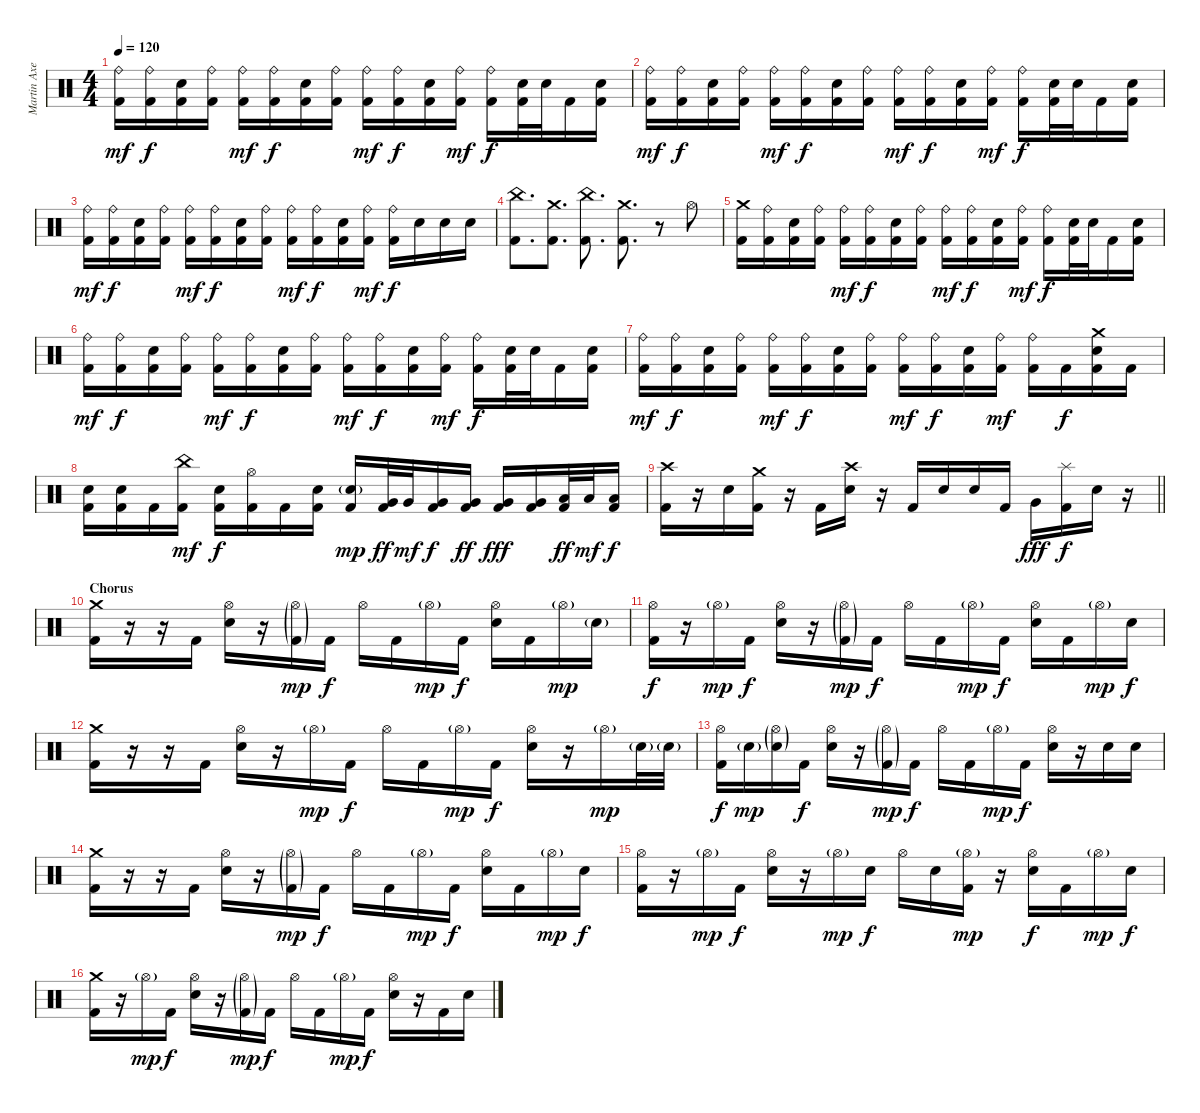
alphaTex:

\track ("Martin Axenrot - Drums" "Martin Axe") {instrument percussion}
\staff {score}
\articulation defaults
\ts (4 4)
\tempo 120
\clef neutral
\ks c
("Ride (bell)" "Kick (hit) 2").16{dy mf} ("Ride (bell)" "Kick (hit) 2").16{dy f} ("Snare (hit) 2" "Kick (hit) 2").16 ("Ride (bell)" "Kick (hit) 2").16 ("Ride (bell)" "Kick (hit) 2").16{dy mf} ("Ride (bell)" "Kick (hit) 2").16{dy f} ("Snare (hit) 2" "Kick (hit) 2").16 ("Ride (bell)" "Kick (hit) 2").16 ("Ride (bell)" "Kick (hit) 2").16{dy mf} ("Ride (bell)" "Kick (hit) 2").16{dy f} ("Snare (hit) 2" "Kick (hit) 2").16 ("Ride (bell)" "Kick (hit) 2").16{dy mf} ("Ride (bell)" "Kick (hit) 2").16{dy f} ("Snare (hit) 2" "Kick (hit) 2").32 "Snare (hit) 2".32 "Kick (hit) 2".16 ("Snare (hit) 2" "Kick (hit) 2").16 |
("Ride (bell)" "Kick (hit) 2").16{dy mf} ("Ride (bell)" "Kick (hit) 2").16{dy f} ("Snare (hit) 2" "Kick (hit) 2").16 ("Ride (bell)" "Kick (hit) 2").16 ("Ride (bell)" "Kick (hit) 2").16{dy mf} ("Ride (bell)" "Kick (hit) 2").16{dy f} ("Snare (hit) 2" "Kick (hit) 2").16 ("Ride (bell)" "Kick (hit) 2").16 ("Ride (bell)" "Kick (hit) 2").16{dy mf} ("Ride (bell)" "Kick (hit) 2").16{dy f} ("Snare (hit) 2" "Kick (hit) 2").16 ("Ride (bell)" "Kick (hit) 2").16{dy mf} ("Ride (bell)" "Kick (hit) 2").16{dy f} ("Snare (hit) 2" "Kick (hit) 2").32 "Snare (hit) 2".32 "Kick (hit) 2".16 ("Snare (hit) 2" "Kick (hit) 2").16 |
("Ride (bell)" "Kick (hit) 2").16{dy mf} ("Ride (bell)" "Kick (hit) 2").16{dy f} ("Snare (hit) 2" "Kick (hit) 2").16 ("Ride (bell)" "Kick (hit) 2").16 ("Ride (bell)" "Kick (hit) 2").16{dy mf} ("Ride (bell)" "Kick (hit) 2").16{dy f} ("Snare (hit) 2" "Kick (hit) 2").16 ("Ride (bell)" "Kick (hit) 2").16 ("Ride (bell)" "Kick (hit) 2").16{dy mf} ("Ride (bell)" "Kick (hit) 2").16{dy f} ("Snare (hit) 2" "Kick (hit) 2").16 ("Ride (bell)" "Kick (hit) 2").16{dy mf} ("Ride (bell)" "Kick (hit) 2").16{dy f} "Snare (hit) 2".16 "Snare (hit) 2".16 "Snare (hit) 2".16 |
("China (hit)" "Kick (hit) 2").8{d} ("Crash medium (hit)" "Kick (hit) 2").8{d} ("China (hit)" "Kick (hit) 2").8{d} ("Crash medium (hit)" "Kick (hit) 2").8{d} r.8 "Hi-Hat (open)".8 |
("Crash medium (hit)" "Kick (hit) 2").16 ("Ride (bell)" "Kick (hit) 2").16 ("Snare (hit) 2" "Kick (hit) 2").16 ("Ride (bell)" "Kick (hit) 2").16 ("Ride (bell)" "Kick (hit) 2").16{dy mf} ("Ride (bell)" "Kick (hit) 2").16{dy f} ("Snare (hit) 2" "Kick (hit) 2").16 ("Ride (bell)" "Kick (hit) 2").16 ("Ride (bell)" "Kick (hit) 2").16{dy mf} ("Ride (bell)" "Kick (hit) 2").16{dy f} ("Snare (hit) 2" "Kick (hit) 2").16 ("Ride (bell)" "Kick (hit) 2").16{dy mf} ("Ride (bell)" "Kick (hit) 2").16{dy f} ("Snare (hit) 2" "Kick (hit) 2").32 "Snare (hit) 2".32 "Kick (hit) 2".16 ("Snare (hit) 2" "Kick (hit) 2").16 |
("Ride (bell)" "Kick (hit) 2").16{dy mf} ("Ride (bell)" "Kick (hit) 2").16{dy f} ("Snare (hit) 2" "Kick (hit) 2").16 ("Ride (bell)" "Kick (hit) 2").16 ("Ride (bell)" "Kick (hit) 2").16{dy mf} ("Ride (bell)" "Kick (hit) 2").16{dy f} ("Snare (hit) 2" "Kick (hit) 2").16 ("Ride (bell)" "Kick (hit) 2").16 ("Ride (bell)" "Kick (hit) 2").16{dy mf} ("Ride (bell)" "Kick (hit) 2").16{dy f} ("Snare (hit) 2" "Kick (hit) 2").16 ("Ride (bell)" "Kick (hit) 2").16{dy mf} ("Ride (bell)" "Kick (hit) 2").16{dy f} ("Snare (hit) 2" "Kick (hit) 2").32 "Snare (hit) 2".32 "Kick (hit) 2".16 ("Snare (hit) 2" "Kick (hit) 2").16 |
("Ride (bell)" "Kick (hit) 2").16{dy mf} ("Ride (bell)" "Kick (hit) 2").16{dy f} ("Snare (hit) 2" "Kick (hit) 2").16 ("Ride (bell)" "Kick (hit) 2").16 ("Ride (bell)" "Kick (hit) 2").16{dy mf} ("Ride (bell)" "Kick (hit) 2").16{dy f} ("Snare (hit) 2" "Kick (hit) 2").16 ("Ride (bell)" "Kick (hit) 2").16 ("Ride (bell)" "Kick (hit) 2").16{dy mf} ("Ride (bell)" "Kick (hit) 2").16{dy f} ("Snare (hit) 2" "Kick (hit) 2").16 ("Ride (bell)" "Kick (hit) 2").16{dy mf} ("Ride (bell)" "Kick (hit) 2").16 "Kick (hit) 2".16{dy f} ("Crash medium (hit)" "Snare (hit) 2" "Kick (hit) 2").16 "Kick (hit) 2".16 |
("Snare (hit) 2" "Kick (hit) 2").16 ("Snare (hit) 2" "Kick (hit) 2").16 "Kick (hit) 2".16 ("China (hit)" "Kick (hit) 2").16{dy mf} ("Snare (hit) 2" "Kick (hit) 2").16{dy f} ("Hi-Hat (open)" "Kick (hit) 2").16 "Kick (hit) 2".16 ("Snare (hit) 2" "Kick (hit) 2").16 ("Snare (hit) 2"{g} "Kick (hit) 2").16{dy mp} ("Very Low Tom (hit)" "Kick (hit) 2").32{dy ff} "Very Low Tom (hit)".32{dy mf} ("Very Low Tom (hit)" "Kick (hit) 2").16{dy f} ("Very Low Tom (hit)" "Kick (hit) 2").16{dy ff} ("Very Low Tom (hit)" "Kick (hit) 2").16{dy fff} ("Very Low Tom (hit)" "Kick (hit) 2").16 ("Low Floor Tom (hit)" "Kick (hit) 2").32{dy ff} "Low Floor Tom (hit)".32{dy mf} ("Low Floor Tom (hit)" "Kick (hit) 2").16{dy f} |
\barLineRight lightlight
("Crash high (hit)" "Kick (hit) 2").16 r.16 "Snare (hit) 2".16 ("Crash medium (hit)" "Kick (hit) 2").16 r.16 "Kick (hit) 2".16 ("Crash high (hit)" "Snare (hit) 2").16 r.16 "Kick (hit) 2".16 "Snare (hit) 2".16 "Snare (hit) 2".16 "Kick (hit) 2".16 "Very Low Tom (hit)".16{dy fff} ("Splash (hit)" "Kick (hit) 2").16{dy f} "Snare (hit) 2".16 r.16 |
\section ("" "Chorus")
("Crash medium (hit)" "Kick (hit) 2").16 r.16 r.16 "Kick (hit) 2".16 ("Hi-Hat (open)" "Snare (hit) 2").16 r.16 ("Hi-Hat (open)"{g} "Kick (hit) 2"{g}).16{dy mp} "Kick (hit) 2".16{dy f} "Hi-Hat (open)".16 "Kick (hit) 2".16 "Hi-Hat (open)"{g}.16{dy mp} "Kick (hit) 2".16{dy f} ("Hi-Hat (open)" "Snare (hit) 2").16 "Kick (hit) 2".16 "Hi-Hat (open)"{g}.16{dy mp} "Snare (hit) 2"{g}.16 |
("Hi-Hat (open)" "Kick (hit) 2").16{dy f} r.16 "Hi-Hat (open)"{g}.16{dy mp} "Kick (hit) 2".16{dy f} ("Hi-Hat (open)" "Snare (hit) 2").16 r.16 ("Hi-Hat (open)"{g} "Kick (hit) 2"{g}).16{dy mp} "Kick (hit) 2".16{dy f} "Hi-Hat (open)".16 "Kick (hit) 2".16 "Hi-Hat (open)"{g}.16{dy mp} "Kick (hit) 2".16{dy f} ("Hi-Hat (open)" "Snare (hit) 2").16 "Kick (hit) 2".16 "Hi-Hat (open)"{g}.16{dy mp} "Snare (hit) 2".16{dy f} |
("Crash medium (hit)" "Kick (hit) 2").16 r.16 r.16 "Kick (hit) 2".16 ("Hi-Hat (open)" "Snare (hit) 2").16 r.16 "Hi-Hat (open)"{g}.16{dy mp} "Kick (hit) 2".16{dy f} "Hi-Hat (open)".16 "Kick (hit) 2".16 "Hi-Hat (open)"{g}.16{dy mp} "Kick (hit) 2".16{dy f} ("Hi-Hat (open)" "Snare (hit) 2").16 r.16 "Hi-Hat (open)"{g}.16{dy mp} "Snare (hit) 2"{g}.32 "Snare (hit) 2"{g}.32 |
("Hi-Hat (open)" "Kick (hit) 2").16{dy f} "Snare (hit) 2"{g}.16{dy mp} ("Hi-Hat (open)"{g} "Snare (hit) 2"{g}).16 "Kick (hit) 2".16{dy f} ("Hi-Hat (open)" "Snare (hit) 2").16 r.16 ("Hi-Hat (open)"{g} "Kick (hit) 2"{g}).16{dy mp} "Kick (hit) 2".16{dy f} "Hi-Hat (open)".16 "Kick (hit) 2".16 "Hi-Hat (open)"{g}.16{dy mp} "Kick (hit) 2".16{dy f} ("Hi-Hat (open)" "Snare (hit) 2").16 r.16 "Snare (hit) 2".16 "Snare (hit) 2".16 |
("Crash medium (hit)" "Kick (hit) 2").16 r.16 r.16 "Kick (hit) 2".16 ("Hi-Hat (open)" "Snare (hit) 2").16 r.16 ("Hi-Hat (open)"{g} "Kick (hit) 2"{g}).16{dy mp} "Kick (hit) 2".16{dy f} "Hi-Hat (open)".16 "Kick (hit) 2".16 "Hi-Hat (open)"{g}.16{dy mp} "Kick (hit) 2".16{dy f} ("Hi-Hat (open)" "Snare (hit) 2").16 "Kick (hit) 2".16 "Hi-Hat (open)"{g}.16{dy mp} "Snare (hit) 2".16{dy f} |
("Hi-Hat (open)" "Kick (hit) 2").16 r.16 "Hi-Hat (open)"{g}.16{dy mp} "Kick (hit) 2".16{dy f} ("Hi-Hat (open)" "Snare (hit) 2").16 r.16 "Hi-Hat (open)"{g}.16{dy mp} "Snare (hit) 2".16{dy f} "Hi-Hat (open)".16 "Snare (hit) 2".16 ("Hi-Hat (open)"{g} "Kick (hit) 2").16{dy mp} r.16 ("Hi-Hat (open)" "Snare (hit) 2").16{dy f} "Kick (hit) 2".16 "Hi-Hat (open)"{g}.16{dy mp} "Snare (hit) 2".16{dy f} |
("Crash medium (hit)" "Kick (hit) 2").16 r.16 "Hi-Hat (open)"{g}.16{dy mp} "Kick (hit) 2".16{dy f} ("Hi-Hat (open)" "Snare (hit) 2").16 r.16 ("Hi-Hat (open)"{g} "Kick (hit) 2"{g}).16{dy mp} "Kick (hit) 2".16{dy f} "Hi-Hat (open)".16 "Kick (hit) 2".16 "Hi-Hat (open)"{g}.16{dy mp} "Kick (hit) 2".16{dy f} ("Hi-Hat (open)" "Snare (hit) 2").16 r.16 "Kick (hit) 2".16 "Snare (hit) 2".16
